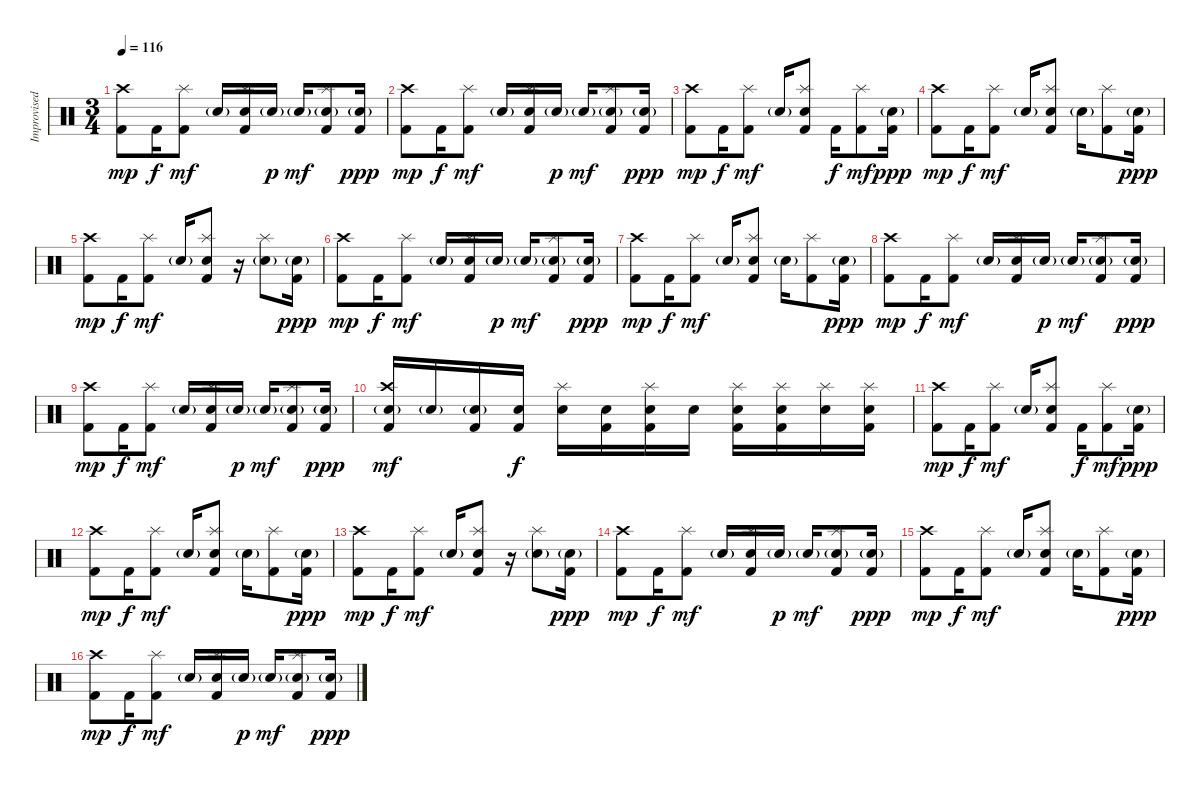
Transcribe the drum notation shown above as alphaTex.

\track ("Improvised Drums" "Improvised") {instrument percussion}
\staff {score}
\articulation defaults
\ts (3 4)
\tempo 116
\clef neutral
\ks c
("Kick (hit) 2" "Crash high (hit)").8{dy mp} "Kick (hit) 2".16{dy f} ("Kick (hit) 2" "Splash (hit)").8{dy mf} "Snare (hit) 2"{g}.16 ("Kick (hit) 2" "Snare (hit) 2" "Splash (hit)").16 "Snare (hit) 2"{g}.16{dy p} "Snare (hit) 2"{g}.16{dy mf} ("Kick (hit) 2" "Snare (hit) 2"{g} "Splash (hit)").8 ("Kick (hit) 2" "Electric Snare (hit)"{g}).16{dy ppp} |
("Kick (hit) 2" "Crash high (hit)").8{dy mp} "Kick (hit) 2".16{dy f} ("Kick (hit) 2" "Splash (hit)").8{dy mf} "Snare (hit) 2"{g}.16 ("Kick (hit) 2" "Snare (hit) 2" "Splash (hit)").16 "Snare (hit) 2"{g}.16{dy p} "Snare (hit) 2"{g}.16{dy mf} ("Kick (hit) 2" "Snare (hit) 2"{g} "Splash (hit)").8 ("Kick (hit) 2" "Electric Snare (hit)"{g}).16{dy ppp} |
("Kick (hit) 2" "Crash high (hit)").8{dy mp} "Kick (hit) 2".16{dy f} ("Kick (hit) 2" "Splash (hit)").8{dy mf} "Snare (hit) 2"{g}.16 ("Kick (hit) 2" "Snare (hit) 2" "Splash (hit)").8 "Kick (hit) 2".16{dy f} ("Kick (hit) 2" "Splash (hit)").8{dy mf} ("Kick (hit) 2" "Electric Snare (hit)"{g}).16{dy ppp} |
("Kick (hit) 2" "Crash high (hit)").8{dy mp} "Kick (hit) 2".16{dy f} ("Kick (hit) 2" "Splash (hit)").8{dy mf} "Snare (hit) 2"{g}.16 ("Kick (hit) 2" "Snare (hit) 2" "Splash (hit)").8 "Snare (hit) 2"{g}.16 ("Kick (hit) 2" "Splash (hit)").8 ("Kick (hit) 2" "Electric Snare (hit)"{g}).16{dy ppp} |
("Kick (hit) 2" "Crash high (hit)").8{dy mp} "Kick (hit) 2".16{dy f} ("Kick (hit) 2" "Splash (hit)").8{dy mf} "Snare (hit) 2"{g}.16 ("Kick (hit) 2" "Snare (hit) 2" "Splash (hit)").8 r.16 ("Snare (hit) 2"{g} "Splash (hit)").8 ("Kick (hit) 2" "Electric Snare (hit)"{g}).16{dy ppp} |
("Kick (hit) 2" "Crash high (hit)").8{dy mp} "Kick (hit) 2".16{dy f} ("Kick (hit) 2" "Splash (hit)").8{dy mf} "Snare (hit) 2"{g}.16 ("Kick (hit) 2" "Snare (hit) 2" "Splash (hit)").16 "Snare (hit) 2"{g}.16{dy p} "Snare (hit) 2"{g}.16{dy mf} ("Kick (hit) 2" "Snare (hit) 2"{g} "Splash (hit)").8 ("Kick (hit) 2" "Electric Snare (hit)"{g}).16{dy ppp} |
("Kick (hit) 2" "Crash high (hit)").8{dy mp} "Kick (hit) 2".16{dy f} ("Kick (hit) 2" "Splash (hit)").8{dy mf} "Snare (hit) 2"{g}.16 ("Kick (hit) 2" "Snare (hit) 2" "Splash (hit)").8 "Snare (hit) 2"{g}.16 ("Kick (hit) 2" "Splash (hit)").8 ("Kick (hit) 2" "Electric Snare (hit)"{g}).16{dy ppp} |
("Kick (hit) 2" "Crash high (hit)").8{dy mp} "Kick (hit) 2".16{dy f} ("Kick (hit) 2" "Splash (hit)").8{dy mf} "Snare (hit) 2"{g}.16 ("Kick (hit) 2" "Snare (hit) 2" "Splash (hit)").16 "Snare (hit) 2"{g}.16{dy p} "Snare (hit) 2"{g}.16{dy mf} ("Kick (hit) 2" "Snare (hit) 2"{g} "Splash (hit)").8 ("Kick (hit) 2" "Electric Snare (hit)"{g}).16{dy ppp} |
("Kick (hit) 2" "Crash high (hit)").8{dy mp} "Kick (hit) 2".16{dy f} ("Kick (hit) 2" "Splash (hit)").8{dy mf} "Snare (hit) 2"{g}.16 ("Kick (hit) 2" "Snare (hit) 2" "Splash (hit)").16 "Snare (hit) 2"{g}.16{dy p} "Snare (hit) 2"{g}.16{dy mf} ("Kick (hit) 2" "Snare (hit) 2"{g} "Splash (hit)").8 ("Kick (hit) 2" "Electric Snare (hit)"{g}).16{dy ppp} |
("Kick (hit) 2" "Snare (hit) 2"{g} "Crash high (hit)").16{dy mf} "Snare (hit) 2"{g}.16 ("Kick (hit) 2" "Snare (hit) 2"{g}).16 ("Kick (hit) 2" "Snare (hit) 2").16{dy f} ("Snare (hit) 2" "Splash (hit)").16 ("Kick (hit) 2" "Snare (hit) 2").16 ("Kick (hit) 2" "Snare (hit) 2" "Splash (hit)").16 "Snare (hit) 2".16 ("Kick (hit) 2" "Snare (hit) 2" "Splash (hit)").16 ("Kick (hit) 2" "Snare (hit) 2" "Splash (hit)").16 ("Snare (hit) 2" "Splash (hit)").16 ("Kick (hit) 2" "Snare (hit) 2" "Splash (hit)").16 |
("Kick (hit) 2" "Crash high (hit)").8{dy mp} "Kick (hit) 2".16{dy f} ("Kick (hit) 2" "Splash (hit)").8{dy mf} "Snare (hit) 2"{g}.16 ("Kick (hit) 2" "Snare (hit) 2" "Splash (hit)").8 "Kick (hit) 2".16{dy f} ("Kick (hit) 2" "Splash (hit)").8{dy mf} ("Kick (hit) 2" "Electric Snare (hit)"{g}).16{dy ppp} |
("Kick (hit) 2" "Crash high (hit)").8{dy mp} "Kick (hit) 2".16{dy f} ("Kick (hit) 2" "Splash (hit)").8{dy mf} "Snare (hit) 2"{g}.16 ("Kick (hit) 2" "Snare (hit) 2" "Splash (hit)").8 "Snare (hit) 2"{g}.16 ("Kick (hit) 2" "Splash (hit)").8 ("Kick (hit) 2" "Electric Snare (hit)"{g}).16{dy ppp} |
("Kick (hit) 2" "Crash high (hit)").8{dy mp} "Kick (hit) 2".16{dy f} ("Kick (hit) 2" "Splash (hit)").8{dy mf} "Snare (hit) 2"{g}.16 ("Kick (hit) 2" "Snare (hit) 2" "Splash (hit)").8 r.16 ("Snare (hit) 2"{g} "Splash (hit)").8 ("Kick (hit) 2" "Electric Snare (hit)"{g}).16{dy ppp} |
("Kick (hit) 2" "Crash high (hit)").8{dy mp} "Kick (hit) 2".16{dy f} ("Kick (hit) 2" "Splash (hit)").8{dy mf} "Snare (hit) 2"{g}.16 ("Kick (hit) 2" "Snare (hit) 2" "Splash (hit)").16 "Snare (hit) 2"{g}.16{dy p} "Snare (hit) 2"{g}.16{dy mf} ("Kick (hit) 2" "Snare (hit) 2"{g} "Splash (hit)").8 ("Kick (hit) 2" "Electric Snare (hit)"{g}).16{dy ppp} |
("Kick (hit) 2" "Crash high (hit)").8{dy mp} "Kick (hit) 2".16{dy f} ("Kick (hit) 2" "Splash (hit)").8{dy mf} "Snare (hit) 2"{g}.16 ("Kick (hit) 2" "Snare (hit) 2" "Splash (hit)").8 "Snare (hit) 2"{g}.16 ("Kick (hit) 2" "Splash (hit)").8 ("Kick (hit) 2" "Electric Snare (hit)"{g}).16{dy ppp} |
("Kick (hit) 2" "Crash high (hit)").8{dy mp} "Kick (hit) 2".16{dy f} ("Kick (hit) 2" "Splash (hit)").8{dy mf} "Snare (hit) 2"{g}.16 ("Kick (hit) 2" "Snare (hit) 2" "Splash (hit)").16 "Snare (hit) 2"{g}.16{dy p} "Snare (hit) 2"{g}.16{dy mf} ("Kick (hit) 2" "Snare (hit) 2"{g} "Splash (hit)").8 ("Kick (hit) 2" "Electric Snare (hit)"{g}).16{dy ppp}
